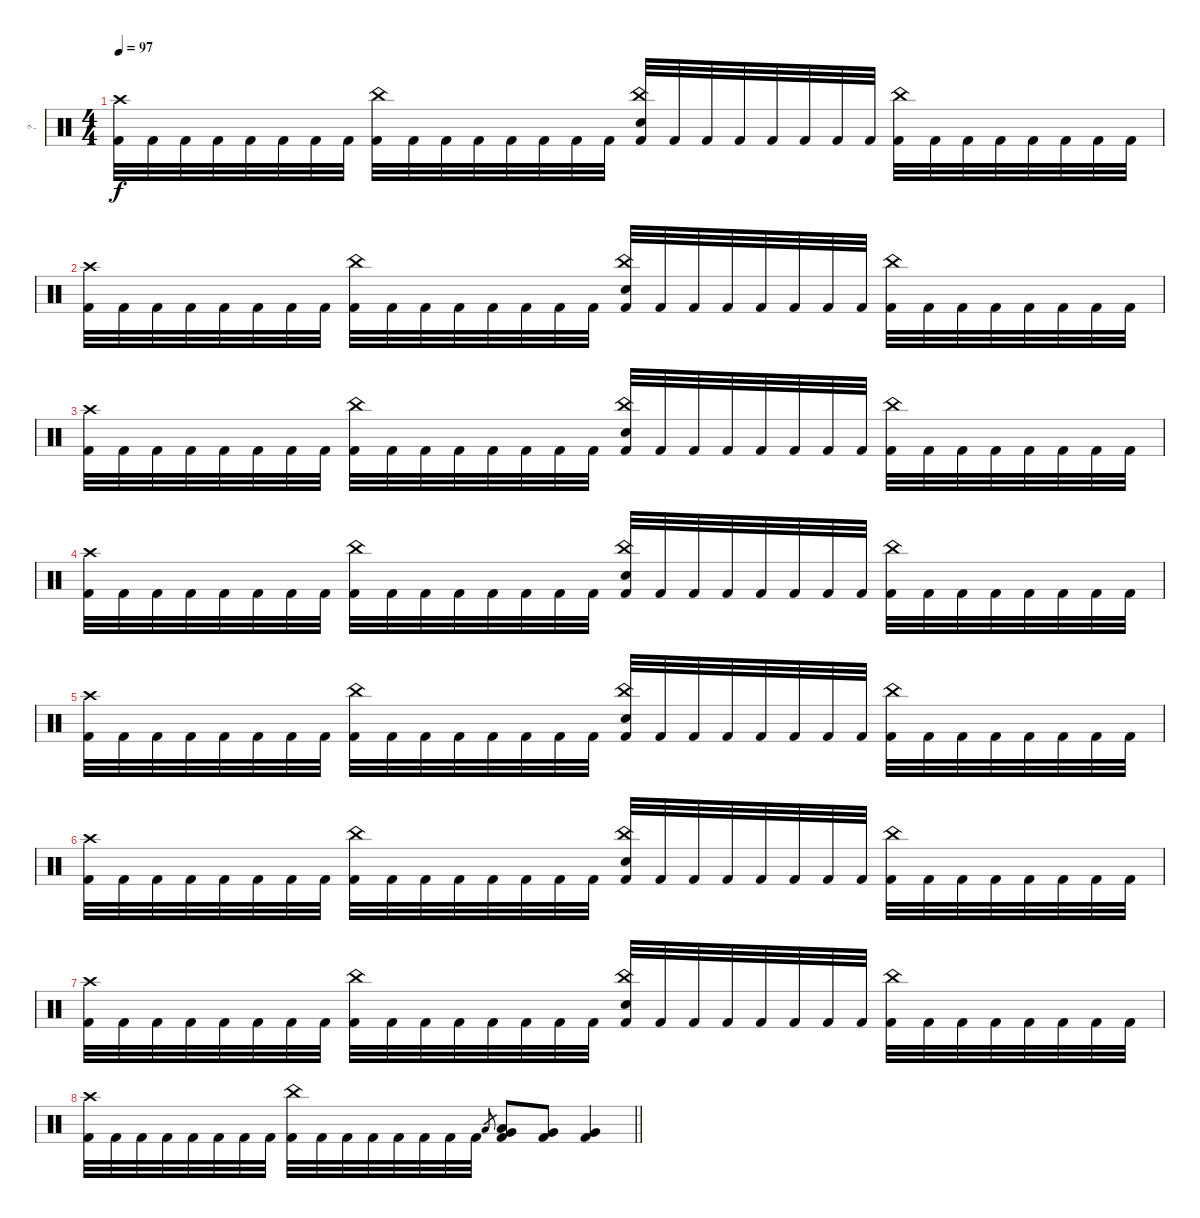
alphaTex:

\track ("?" "?") {instrument percussion}
\staff {score}
\articulation defaults
\ts (4 4)
\tempo 97
\clef neutral
\ks c
("Crash high (hit)" "Kick (hit) 2").32{dy f} "Kick (hit) 2".32 "Kick (hit) 2".32 "Kick (hit) 2".32 "Kick (hit) 2".32 "Kick (hit) 2".32 "Kick (hit) 2".32 "Kick (hit) 2".32 ("China (hit)" "Kick (hit) 2").32 "Kick (hit) 2".32 "Kick (hit) 2".32 "Kick (hit) 2".32 "Kick (hit) 2".32 "Kick (hit) 2".32 "Kick (hit) 2".32 "Kick (hit) 2".32 ("China (hit)" "Electric Snare (hit)" "Kick (hit) 2").32 "Kick (hit) 2".32 "Kick (hit) 2".32 "Kick (hit) 2".32 "Kick (hit) 2".32 "Kick (hit) 2".32 "Kick (hit) 2".32 "Kick (hit) 2".32 ("China (hit)" "Kick (hit) 2").32 "Kick (hit) 2".32 "Kick (hit) 2".32 "Kick (hit) 2".32 "Kick (hit) 2".32 "Kick (hit) 2".32 "Kick (hit) 2".32 "Kick (hit) 2".32 |
("Crash high (hit)" "Kick (hit) 2").32 "Kick (hit) 2".32 "Kick (hit) 2".32 "Kick (hit) 2".32 "Kick (hit) 2".32 "Kick (hit) 2".32 "Kick (hit) 2".32 "Kick (hit) 2".32 ("China (hit)" "Kick (hit) 2").32 "Kick (hit) 2".32 "Kick (hit) 2".32 "Kick (hit) 2".32 "Kick (hit) 2".32 "Kick (hit) 2".32 "Kick (hit) 2".32 "Kick (hit) 2".32 ("China (hit)" "Electric Snare (hit)" "Kick (hit) 2").32 "Kick (hit) 2".32 "Kick (hit) 2".32 "Kick (hit) 2".32 "Kick (hit) 2".32 "Kick (hit) 2".32 "Kick (hit) 2".32 "Kick (hit) 2".32 ("China (hit)" "Kick (hit) 2").32 "Kick (hit) 2".32 "Kick (hit) 2".32 "Kick (hit) 2".32 "Kick (hit) 2".32 "Kick (hit) 2".32 "Kick (hit) 2".32 "Kick (hit) 2".32 |
("Crash high (hit)" "Kick (hit) 2").32 "Kick (hit) 2".32 "Kick (hit) 2".32 "Kick (hit) 2".32 "Kick (hit) 2".32 "Kick (hit) 2".32 "Kick (hit) 2".32 "Kick (hit) 2".32 ("China (hit)" "Kick (hit) 2").32 "Kick (hit) 2".32 "Kick (hit) 2".32 "Kick (hit) 2".32 "Kick (hit) 2".32 "Kick (hit) 2".32 "Kick (hit) 2".32 "Kick (hit) 2".32 ("China (hit)" "Electric Snare (hit)" "Kick (hit) 2").32 "Kick (hit) 2".32 "Kick (hit) 2".32 "Kick (hit) 2".32 "Kick (hit) 2".32 "Kick (hit) 2".32 "Kick (hit) 2".32 "Kick (hit) 2".32 ("China (hit)" "Kick (hit) 2").32 "Kick (hit) 2".32 "Kick (hit) 2".32 "Kick (hit) 2".32 "Kick (hit) 2".32 "Kick (hit) 2".32 "Kick (hit) 2".32 "Kick (hit) 2".32 |
("Crash high (hit)" "Kick (hit) 2").32 "Kick (hit) 2".32 "Kick (hit) 2".32 "Kick (hit) 2".32 "Kick (hit) 2".32 "Kick (hit) 2".32 "Kick (hit) 2".32 "Kick (hit) 2".32 ("China (hit)" "Kick (hit) 2").32 "Kick (hit) 2".32 "Kick (hit) 2".32 "Kick (hit) 2".32 "Kick (hit) 2".32 "Kick (hit) 2".32 "Kick (hit) 2".32 "Kick (hit) 2".32 ("China (hit)" "Electric Snare (hit)" "Kick (hit) 2").32 "Kick (hit) 2".32 "Kick (hit) 2".32 "Kick (hit) 2".32 "Kick (hit) 2".32 "Kick (hit) 2".32 "Kick (hit) 2".32 "Kick (hit) 2".32 ("China (hit)" "Kick (hit) 2").32 "Kick (hit) 2".32 "Kick (hit) 2".32 "Kick (hit) 2".32 "Kick (hit) 2".32 "Kick (hit) 2".32 "Kick (hit) 2".32 "Kick (hit) 2".32 |
("Crash high (hit)" "Kick (hit) 2").32 "Kick (hit) 2".32 "Kick (hit) 2".32 "Kick (hit) 2".32 "Kick (hit) 2".32 "Kick (hit) 2".32 "Kick (hit) 2".32 "Kick (hit) 2".32 ("China (hit)" "Kick (hit) 2").32 "Kick (hit) 2".32 "Kick (hit) 2".32 "Kick (hit) 2".32 "Kick (hit) 2".32 "Kick (hit) 2".32 "Kick (hit) 2".32 "Kick (hit) 2".32 ("China (hit)" "Electric Snare (hit)" "Kick (hit) 2").32 "Kick (hit) 2".32 "Kick (hit) 2".32 "Kick (hit) 2".32 "Kick (hit) 2".32 "Kick (hit) 2".32 "Kick (hit) 2".32 "Kick (hit) 2".32 ("China (hit)" "Kick (hit) 2").32 "Kick (hit) 2".32 "Kick (hit) 2".32 "Kick (hit) 2".32 "Kick (hit) 2".32 "Kick (hit) 2".32 "Kick (hit) 2".32 "Kick (hit) 2".32 |
("Crash high (hit)" "Kick (hit) 2").32 "Kick (hit) 2".32 "Kick (hit) 2".32 "Kick (hit) 2".32 "Kick (hit) 2".32 "Kick (hit) 2".32 "Kick (hit) 2".32 "Kick (hit) 2".32 ("China (hit)" "Kick (hit) 2").32 "Kick (hit) 2".32 "Kick (hit) 2".32 "Kick (hit) 2".32 "Kick (hit) 2".32 "Kick (hit) 2".32 "Kick (hit) 2".32 "Kick (hit) 2".32 ("China (hit)" "Electric Snare (hit)" "Kick (hit) 2").32 "Kick (hit) 2".32 "Kick (hit) 2".32 "Kick (hit) 2".32 "Kick (hit) 2".32 "Kick (hit) 2".32 "Kick (hit) 2".32 "Kick (hit) 2".32 ("China (hit)" "Kick (hit) 2").32 "Kick (hit) 2".32 "Kick (hit) 2".32 "Kick (hit) 2".32 "Kick (hit) 2".32 "Kick (hit) 2".32 "Kick (hit) 2".32 "Kick (hit) 2".32 |
("Crash high (hit)" "Kick (hit) 2").32 "Kick (hit) 2".32 "Kick (hit) 2".32 "Kick (hit) 2".32 "Kick (hit) 2".32 "Kick (hit) 2".32 "Kick (hit) 2".32 "Kick (hit) 2".32 ("China (hit)" "Kick (hit) 2").32 "Kick (hit) 2".32 "Kick (hit) 2".32 "Kick (hit) 2".32 "Kick (hit) 2".32 "Kick (hit) 2".32 "Kick (hit) 2".32 "Kick (hit) 2".32 ("China (hit)" "Electric Snare (hit)" "Kick (hit) 2").32 "Kick (hit) 2".32 "Kick (hit) 2".32 "Kick (hit) 2".32 "Kick (hit) 2".32 "Kick (hit) 2".32 "Kick (hit) 2".32 "Kick (hit) 2".32 ("China (hit)" "Kick (hit) 2").32 "Kick (hit) 2".32 "Kick (hit) 2".32 "Kick (hit) 2".32 "Kick (hit) 2".32 "Kick (hit) 2".32 "Kick (hit) 2".32 "Kick (hit) 2".32 |
\barLineRight lightlight
("Crash high (hit)" "Kick (hit) 2").32 "Kick (hit) 2".32 "Kick (hit) 2".32 "Kick (hit) 2".32 "Kick (hit) 2".32 "Kick (hit) 2".32 "Kick (hit) 2".32 "Kick (hit) 2".32 ("China (hit)" "Kick (hit) 2").32 "Kick (hit) 2".32 "Kick (hit) 2".32 "Kick (hit) 2".32 "Kick (hit) 2".32 "Kick (hit) 2".32 "Kick (hit) 2".32 "Kick (hit) 2".32 "Low Tom (hit)".8{gr} ("Very Low Tom (hit)" "Low Tom (hit)" "Kick (hit) 2").8 ("Very Low Tom (hit)" "Kick (hit) 2").8 ("Very Low Tom (hit)" "Kick (hit) 2").4
